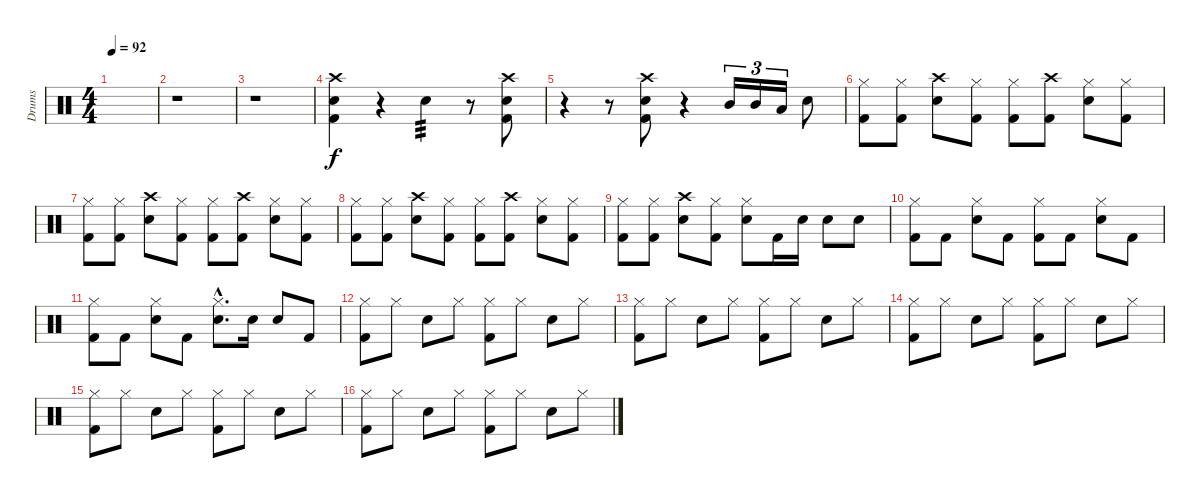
\track ("Drums" "Drums") {instrument percussion}
\staff {score}
\articulation defaults
\ts (4 4)
\tempo 92
\clef neutral
\ks c
|
r.1 |
r.1 |
("Crash high (hit)" "Electric Snare (hit)" "Kick (hit) 2").4 r.4 "Electric Snare (hit)".4{tp 3} r.8 ("Crash high (hit)" "Electric Snare (hit)" "Kick (hit) 2").8 |
r.4 r.8 ("Crash high (hit)" "Electric Snare (hit)" "Kick (hit) 2").8 r.4 "Mid Tom (hit)".16{tu (3 2)} "Mid Tom (hit)".16{tu (3 2)} "Low Tom (hit)".16{tu (3 2)} "Electric Snare (hit)".8 |
("Hi-Hat (closed)" "Kick (hit) 2").8 ("Hi-Hat (closed)" "Kick (hit) 2").8 ("Crash high (hit)" "Electric Snare (hit)").8 ("Hi-Hat (closed)" "Kick (hit) 2").8 ("Hi-Hat (closed)" "Kick (hit) 2").8 ("Crash high (hit)" "Kick (hit) 2").8 ("Hi-Hat (closed)" "Electric Snare (hit)").8 ("Hi-Hat (closed)" "Kick (hit) 2").8 |
("Hi-Hat (closed)" "Kick (hit) 2").8 ("Hi-Hat (closed)" "Kick (hit) 2").8 ("Crash high (hit)" "Electric Snare (hit)").8 ("Hi-Hat (closed)" "Kick (hit) 2").8 ("Hi-Hat (closed)" "Kick (hit) 2").8 ("Crash high (hit)" "Kick (hit) 2").8 ("Hi-Hat (closed)" "Electric Snare (hit)").8 ("Hi-Hat (closed)" "Kick (hit) 2").8 |
("Hi-Hat (closed)" "Kick (hit) 2").8 ("Hi-Hat (closed)" "Kick (hit) 2").8 ("Crash high (hit)" "Electric Snare (hit)").8 ("Hi-Hat (closed)" "Kick (hit) 2").8 ("Hi-Hat (closed)" "Kick (hit) 2").8 ("Crash high (hit)" "Kick (hit) 2").8 ("Hi-Hat (closed)" "Electric Snare (hit)").8 ("Hi-Hat (closed)" "Kick (hit) 2").8 |
("Hi-Hat (closed)" "Kick (hit) 2").8 ("Hi-Hat (closed)" "Kick (hit) 2").8 ("Crash high (hit)" "Electric Snare (hit)").8 ("Hi-Hat (closed)" "Kick (hit) 2").8 ("Hi-Hat (closed)" "Electric Snare (hit)").8 "Kick (hit) 2".16 "Electric Snare (hit)".16 "Electric Snare (hit)".8 "Electric Snare (hit)".8 |
("Hi-Hat (closed)" "Kick (hit) 2").8 "Kick (hit) 2".8 ("Hi-Hat (closed)" "Electric Snare (hit)").8 "Kick (hit) 2".8 ("Hi-Hat (closed)" "Kick (hit) 2").8 "Kick (hit) 2".8 ("Hi-Hat (closed)" "Electric Snare (hit)").8 "Kick (hit) 2".8 |
("Hi-Hat (closed)" "Kick (hit) 2").8 "Kick (hit) 2".8 ("Hi-Hat (closed)" "Electric Snare (hit)").8 "Kick (hit) 2".8 ("Hi-Hat (closed)"{hac} "Electric Snare (hit)"{hac}).8{d} "Electric Snare (hit)".16 "Electric Snare (hit)".8 "Kick (hit) 2".8 |
("Hi-Hat (closed)" "Kick (hit) 2").8 "Hi-Hat (closed)".8 "Electric Snare (hit)".8 "Hi-Hat (closed)".8 ("Hi-Hat (closed)" "Kick (hit) 2").8 "Hi-Hat (closed)".8 "Electric Snare (hit)".8 "Hi-Hat (closed)".8 |
("Hi-Hat (closed)" "Kick (hit) 2").8 "Hi-Hat (closed)".8 "Electric Snare (hit)".8 "Hi-Hat (closed)".8 ("Hi-Hat (closed)" "Kick (hit) 2").8 "Hi-Hat (closed)".8 "Electric Snare (hit)".8 "Hi-Hat (closed)".8 |
("Hi-Hat (closed)" "Kick (hit) 2").8 "Hi-Hat (closed)".8 "Electric Snare (hit)".8 "Hi-Hat (closed)".8 ("Hi-Hat (closed)" "Kick (hit) 2").8 "Hi-Hat (closed)".8 "Electric Snare (hit)".8 "Hi-Hat (closed)".8 |
("Hi-Hat (closed)" "Kick (hit) 2").8 "Hi-Hat (closed)".8 "Electric Snare (hit)".8 "Hi-Hat (closed)".8 ("Hi-Hat (closed)" "Kick (hit) 2").8 "Hi-Hat (closed)".8 "Electric Snare (hit)".8 "Hi-Hat (closed)".8 |
("Hi-Hat (closed)" "Kick (hit) 2").8 "Hi-Hat (closed)".8 "Electric Snare (hit)".8 "Hi-Hat (closed)".8 ("Hi-Hat (closed)" "Kick (hit) 2").8 "Hi-Hat (closed)".8 "Electric Snare (hit)".8 "Hi-Hat (closed)".8
